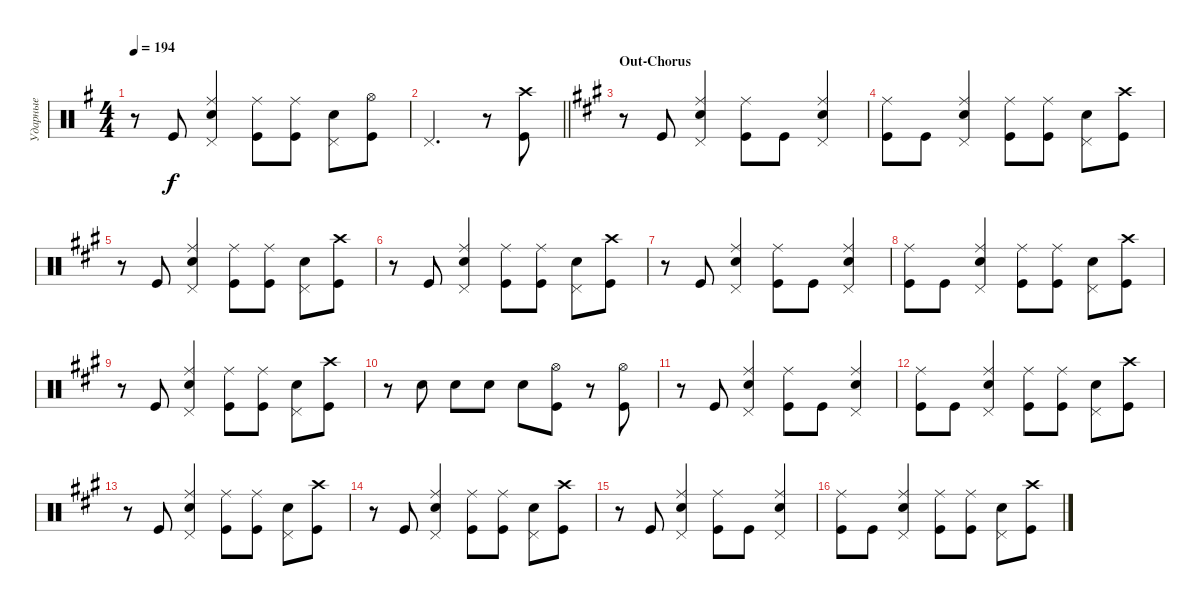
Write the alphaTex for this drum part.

\track ("Ударные" "Ударные") {instrument percussion}
\staff {score}
\articulation defaults
\ts (4 4)
\tempo 194
\clef neutral
\ks eminor
r.8{dy f} "Kick (hit)".8 ("Snare (hit) 2" "Ride (middle)" "Pedal Hi-Hat (hit)").4 ("Ride (middle)" "Kick (hit)").8 ("Kick (hit)" "Ride (middle)").8 ("Snare (hit) 2" "Pedal Hi-Hat (hit)").8 ("Kick (hit)" "Hi-Hat (open)").8 |
\barLineRight lightlight "Pedal Hi-Hat (hit)".2{d}
r.8 ("Kick (hit)" "Crash high (hit)").8 |
\section ("" "Out-Chorus")
\ks f#minor
r.8 "Kick (hit)".8 ("Snare (hit) 2" "Ride (middle)" "Pedal Hi-Hat (hit)").4 ("Kick (hit)" "Ride (middle)").8 "Kick (hit)".8 ("Snare (hit) 2" "Ride (middle)" "Pedal Hi-Hat (hit)").4 |
("Kick (hit)" "Ride (middle)").8 "Kick (hit)".8 ("Snare (hit) 2" "Ride (middle)" "Pedal Hi-Hat (hit)").4 ("Kick (hit)" "Ride (middle)").8 ("Kick (hit)" "Ride (middle)").8 ("Snare (hit) 2" "Pedal Hi-Hat (hit)").8 ("Kick (hit)" "Crash high (hit)").8 |
r.8 "Kick (hit)".8 ("Snare (hit) 2" "Ride (middle)" "Pedal Hi-Hat (hit)").4 ("Kick (hit)" "Ride (middle)").8 ("Kick (hit)" "Ride (middle)").8 ("Snare (hit) 2" "Pedal Hi-Hat (hit)").8 ("Kick (hit)" "Crash high (hit)").8 |
r.8 "Kick (hit)".8 ("Snare (hit) 2" "Ride (middle)" "Pedal Hi-Hat (hit)").4 ("Kick (hit)" "Ride (middle)").8 ("Kick (hit)" "Ride (middle)").8 ("Snare (hit) 2" "Pedal Hi-Hat (hit)").8 ("Kick (hit)" "Crash high (hit)").8 |
r.8 "Kick (hit)".8 ("Snare (hit) 2" "Ride (middle)" "Pedal Hi-Hat (hit)").4 ("Kick (hit)" "Ride (middle)").8 "Kick (hit)".8 ("Snare (hit) 2" "Ride (middle)" "Pedal Hi-Hat (hit)").4 |
("Kick (hit)" "Ride (middle)").8 "Kick (hit)".8 ("Snare (hit) 2" "Ride (middle)" "Pedal Hi-Hat (hit)").4 ("Kick (hit)" "Ride (middle)").8 ("Kick (hit)" "Ride (middle)").8 ("Snare (hit) 2" "Pedal Hi-Hat (hit)").8 ("Kick (hit)" "Crash high (hit)").8 |
r.8 "Kick (hit)".8 ("Snare (hit) 2" "Ride (middle)" "Pedal Hi-Hat (hit)").4 ("Kick (hit)" "Ride (middle)").8 ("Kick (hit)" "Ride (middle)").8 ("Snare (hit) 2" "Pedal Hi-Hat (hit)").8 ("Kick (hit)" "Crash high (hit)").8 |
r.8 "Snare (hit) 2".8 "Snare (hit) 2".8 "Snare (hit) 2".8 "Snare (hit) 2".8 ("Kick (hit)" "Hi-Hat (open)").8 r.8 ("Kick (hit)" "Hi-Hat (open)").8 |
r.8 "Kick (hit)".8 ("Snare (hit) 2" "Ride (middle)" "Pedal Hi-Hat (hit)").4 ("Kick (hit)" "Ride (middle)").8 "Kick (hit)".8 ("Snare (hit) 2" "Ride (middle)" "Pedal Hi-Hat (hit)").4 |
("Kick (hit)" "Ride (middle)").8 "Kick (hit)".8 ("Snare (hit) 2" "Ride (middle)" "Pedal Hi-Hat (hit)").4 ("Kick (hit)" "Ride (middle)").8 ("Kick (hit)" "Ride (middle)").8 ("Snare (hit) 2" "Pedal Hi-Hat (hit)").8 ("Kick (hit)" "Crash high (hit)").8 |
r.8 "Kick (hit)".8 ("Snare (hit) 2" "Ride (middle)" "Pedal Hi-Hat (hit)").4 ("Kick (hit)" "Ride (middle)").8 ("Kick (hit)" "Ride (middle)").8 ("Snare (hit) 2" "Pedal Hi-Hat (hit)").8 ("Kick (hit)" "Crash high (hit)").8 |
r.8 "Kick (hit)".8 ("Snare (hit) 2" "Ride (middle)" "Pedal Hi-Hat (hit)").4 ("Kick (hit)" "Ride (middle)").8 ("Kick (hit)" "Ride (middle)").8 ("Snare (hit) 2" "Pedal Hi-Hat (hit)").8 ("Kick (hit)" "Crash high (hit)").8 |
r.8 "Kick (hit)".8 ("Snare (hit) 2" "Ride (middle)" "Pedal Hi-Hat (hit)").4 ("Kick (hit)" "Ride (middle)").8 "Kick (hit)".8 ("Snare (hit) 2" "Ride (middle)" "Pedal Hi-Hat (hit)").4 |
("Kick (hit)" "Ride (middle)").8 "Kick (hit)".8 ("Snare (hit) 2" "Ride (middle)" "Pedal Hi-Hat (hit)").4 ("Kick (hit)" "Ride (middle)").8 ("Kick (hit)" "Ride (middle)").8 ("Snare (hit) 2" "Pedal Hi-Hat (hit)").8 ("Kick (hit)" "Crash high (hit)").8
